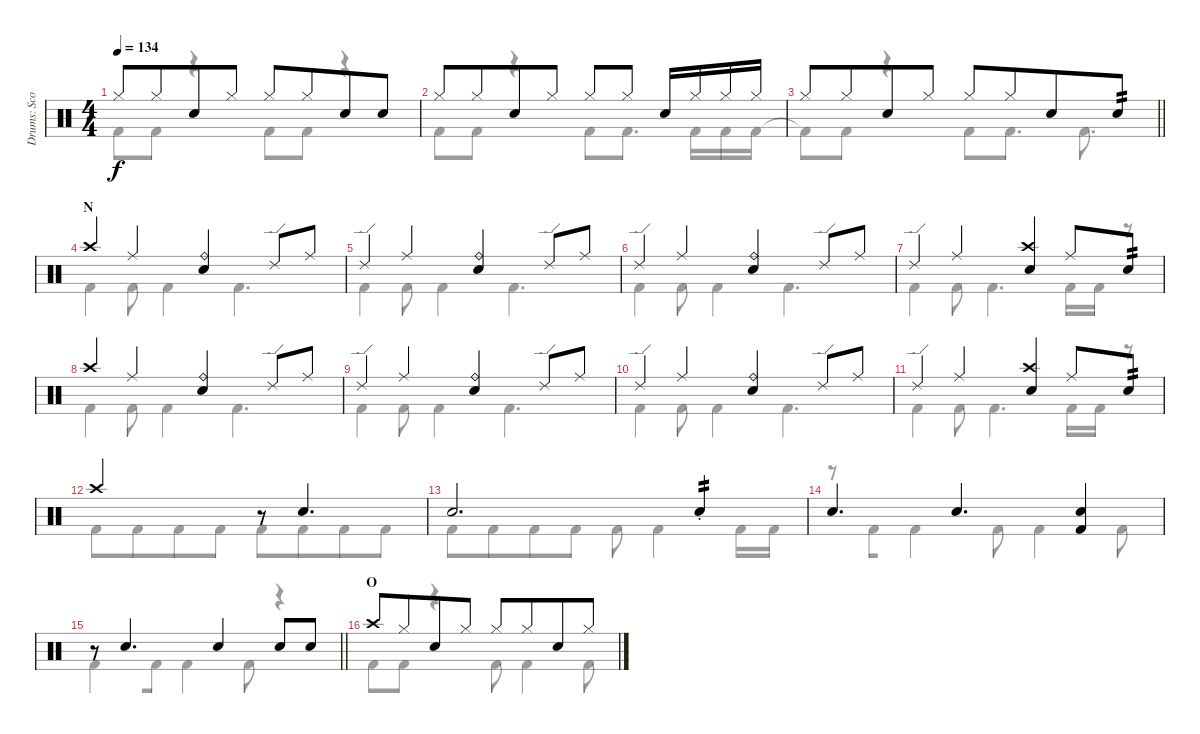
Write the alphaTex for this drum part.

\track ("Drums: Scott" "Drums: Sco") {instrument percussion}
\staff {score}
\articulation defaults
\voice
\ts (4 4)
\tempo 134
\clef neutral
\ks c "Hi-Hat (closed)".8{dy f} "Hi-Hat (closed)".8{beam merge} "Snare (hit) 2".8 "Hi-Hat (closed)".8 "Hi-Hat (closed)".8 "Hi-Hat (closed)".8{beam merge} "Snare (hit) 2".8 "Snare (hit) 2".8
|
"Hi-Hat (closed)".8 "Hi-Hat (closed)".8{beam merge} "Snare (hit) 2".8 "Hi-Hat (closed)".8 "Hi-Hat (closed)".8 "Hi-Hat (closed)".8 "Snare (hit) 2".16 "Hi-Hat (closed)".16 "Hi-Hat (closed)".16 "Hi-Hat (closed)".16 |
\barLineRight lightlight "Hi-Hat (closed)".8 "Hi-Hat (closed)".8{beam merge} "Snare (hit) 2".8 "Hi-Hat (closed)".8 "Hi-Hat (closed)".8 "Hi-Hat (closed)".8{beam merge} "Snare (hit) 2".8 "Snare (hit) 2".8{tp 2}
|
\section ("" "N")
"Crash high (hit)".4 "Ride (middle)".4 ("Ride (bell)" "Snare (hit) 2").4 "Ride (edge) 2".8 "Ride (middle)".8 |
"Ride (edge) 2".4 "Ride (middle)".4 ("Ride (bell)" "Snare (hit) 2").4 "Ride (edge) 2".8 "Ride (middle)".8 |
"Ride (edge) 2".4 "Ride (middle)".4 ("Ride (bell)" "Snare (hit) 2").4 "Ride (edge) 2".8 "Ride (middle)".8 |
"Ride (edge) 2".4 "Ride (middle)".4 ("Crash high (hit)" "Snare (hit) 2").4 "Ride (middle)".8 "Snare (hit) 2".8{tp 2} |
"Crash high (hit)".4 "Ride (middle)".4 ("Ride (bell)" "Snare (hit) 2").4 "Ride (edge) 2".8 "Ride (middle)".8 |
"Ride (edge) 2".4 "Ride (middle)".4 ("Ride (bell)" "Snare (hit) 2").4 "Ride (edge) 2".8 "Ride (middle)".8 |
"Ride (edge) 2".4 "Ride (middle)".4 ("Ride (bell)" "Snare (hit) 2").4 "Ride (edge) 2".8 "Ride (middle)".8 |
"Ride (edge) 2".4 "Ride (middle)".4 ("Crash high (hit)" "Snare (hit) 2").4 "Ride (middle)".8 "Snare (hit) 2".8{tp 2} |
"Crash high (hit)".2 r.8 "Snare (hit) 2".4{d} |
"Snare (hit) 2".2{d beam merge} "Snare (hit) 2"{st}.4{tp 2} |
"Snare (hit) 2".4{d} "Snare (hit) 2".4{d beam merge} ("Snare (hit) 2" "Kick (hit) 2").4 |
\barLineRight lightlight
r.8 "Snare (hit) 2".4{d} "Snare (hit) 2".4{beam merge} "Snare (hit) 2".8{beam merge} "Snare (hit) 2".8 |
\section ("" "O")
"Crash high (hit)".8 "Hi-Hat (closed)".8{beam merge} "Snare (hit) 2".8 "Hi-Hat (closed)".8 "Hi-Hat (closed)".8 "Hi-Hat (closed)".8{beam merge} "Snare (hit) 2".8 "Hi-Hat (closed)".8
\voice
\clef neutral
\ottava regular
\simile none
\ks c "Kick (hit) 2".8{dy f} "Kick (hit) 2".8
r.4 "Kick (hit) 2".8 "Kick (hit) 2".8 r.4 |
"Kick (hit) 2".8 "Kick (hit) 2".8 r.4 "Kick (hit) 2".8 "Kick (hit) 2".8{d} "Kick (hit) 2".16 "Kick (hit) 2".16 "Kick (hit) 2".16 |
\barLineRight lightlight "Kick (hit) 2"{t}.8 "Kick (hit) 2".8
r.4 "Kick (hit) 2".8 "Kick (hit) 2".8{d} "Kick (hit) 2".8{d} |
"Kick (hit) 2".4 "Kick (hit) 2".8 "Kick (hit) 2".4 "Kick (hit) 2".4{d} |
"Kick (hit) 2".4 "Kick (hit) 2".8 "Kick (hit) 2".4 "Kick (hit) 2".4{d} |
"Kick (hit) 2".4 "Kick (hit) 2".8 "Kick (hit) 2".4 "Kick (hit) 2".4{d} |
"Kick (hit) 2".4 "Kick (hit) 2".8 "Kick (hit) 2".4{d} "Kick (hit) 2".16 "Kick (hit) 2".16 r.8 |
"Kick (hit) 2".4 "Kick (hit) 2".8 "Kick (hit) 2".4 "Kick (hit) 2".4{d} |
"Kick (hit) 2".4 "Kick (hit) 2".8 "Kick (hit) 2".4 "Kick (hit) 2".4{d} |
"Kick (hit) 2".4 "Kick (hit) 2".8 "Kick (hit) 2".4 "Kick (hit) 2".4{d} |
"Kick (hit) 2".4 "Kick (hit) 2".8 "Kick (hit) 2".4{d} "Kick (hit) 2".16 "Kick (hit) 2".16 r.8 |
"Kick (hit) 2".8 "Kick (hit) 2".8{beam merge} "Kick (hit) 2".8 "Kick (hit) 2".8 "Kick (hit) 2".8 "Kick (hit) 2".8{beam merge} "Kick (hit) 2".8 "Kick (hit) 2".8 |
"Kick (hit) 2".8 "Kick (hit) 2".8{beam merge} "Kick (hit) 2".8 "Kick (hit) 2".8 "Kick (hit) 2".8 "Kick (hit) 2".4{beam merge} "Kick (hit) 2".16 "Kick (hit) 2".16 |
r.8 "Kick (hit) 2".8{beam merge} "Kick (hit) 2".4 "Kick (hit) 2".8 "Kick (hit) 2".4 "Kick (hit) 2".8 |
\barLineRight lightlight "Kick (hit) 2".4{beam merge} "Kick (hit) 2".8 "Kick (hit) 2".4 "Kick (hit) 2".8{beam merge}
r.4 |
"Kick (hit) 2".8 "Kick (hit) 2".8 r.4 "Kick (hit) 2".8 "Kick (hit) 2".4 "Kick (hit) 2".8
